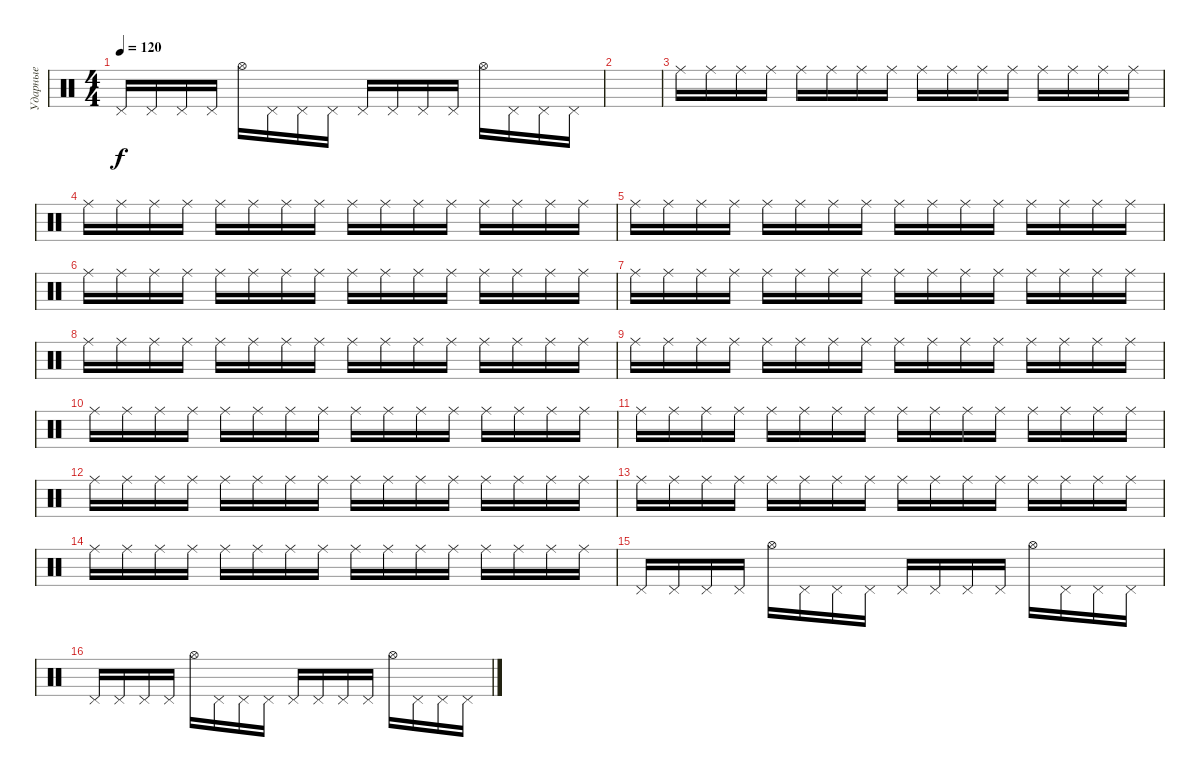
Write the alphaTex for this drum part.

\track ("Ударные" "Ударные") {instrument percussion}
\staff {score}
\articulation defaults
\ts (4 4)
\tempo 120
\clef neutral
\ks c "Pedal Hi-Hat (hit)".16{dy f} "Pedal Hi-Hat (hit)".16 "Pedal Hi-Hat (hit)".16 "Pedal Hi-Hat (hit)".16 "Hi-Hat (open)".16 "Pedal Hi-Hat (hit)".16 "Pedal Hi-Hat (hit)".16 "Pedal Hi-Hat (hit)".16 "Pedal Hi-Hat (hit)".16 "Pedal Hi-Hat (hit)".16 "Pedal Hi-Hat (hit)".16 "Pedal Hi-Hat (hit)".16 "Hi-Hat (open)".16 "Pedal Hi-Hat (hit)".16 "Pedal Hi-Hat (hit)".16 "Pedal Hi-Hat (hit)".16
|
|
"Ride (middle)".16 "Ride (middle)".16 "Ride (middle)".16 "Ride (middle)".16 "Ride (middle)".16 "Ride (middle)".16 "Ride (middle)".16 "Ride (middle)".16 "Ride (middle)".16 "Ride (middle)".16 "Ride (middle)".16 "Ride (middle)".16 "Ride (middle)".16 "Ride (middle)".16 "Ride (middle)".16 "Ride (middle)".16 |
"Ride (middle)".16 "Ride (middle)".16 "Ride (middle)".16 "Ride (middle)".16 "Ride (middle)".16 "Ride (middle)".16 "Ride (middle)".16 "Ride (middle)".16 "Ride (middle)".16 "Ride (middle)".16 "Ride (middle)".16 "Ride (middle)".16 "Ride (middle)".16 "Ride (middle)".16 "Ride (middle)".16 "Ride (middle)".16 |
"Ride (middle)".16 "Ride (middle)".16 "Ride (middle)".16 "Ride (middle)".16 "Ride (middle)".16 "Ride (middle)".16 "Ride (middle)".16 "Ride (middle)".16 "Ride (middle)".16 "Ride (middle)".16 "Ride (middle)".16 "Ride (middle)".16 "Ride (middle)".16 "Ride (middle)".16 "Ride (middle)".16 "Ride (middle)".16 |
"Ride (middle)".16 "Ride (middle)".16 "Ride (middle)".16 "Ride (middle)".16 "Ride (middle)".16 "Ride (middle)".16 "Ride (middle)".16 "Ride (middle)".16 "Ride (middle)".16 "Ride (middle)".16 "Ride (middle)".16 "Ride (middle)".16 "Ride (middle)".16 "Ride (middle)".16 "Ride (middle)".16 "Ride (middle)".16 |
"Ride (middle)".16 "Ride (middle)".16 "Ride (middle)".16 "Ride (middle)".16 "Ride (middle)".16 "Ride (middle)".16 "Ride (middle)".16 "Ride (middle)".16 "Ride (middle)".16 "Ride (middle)".16 "Ride (middle)".16 "Ride (middle)".16 "Ride (middle)".16 "Ride (middle)".16 "Ride (middle)".16 "Ride (middle)".16 |
"Ride (middle)".16 "Ride (middle)".16 "Ride (middle)".16 "Ride (middle)".16 "Ride (middle)".16 "Ride (middle)".16 "Ride (middle)".16 "Ride (middle)".16 "Ride (middle)".16 "Ride (middle)".16 "Ride (middle)".16 "Ride (middle)".16 "Ride (middle)".16 "Ride (middle)".16 "Ride (middle)".16 "Ride (middle)".16 |
"Ride (middle)".16 "Ride (middle)".16 "Ride (middle)".16 "Ride (middle)".16 "Ride (middle)".16 "Ride (middle)".16 "Ride (middle)".16 "Ride (middle)".16 "Ride (middle)".16 "Ride (middle)".16 "Ride (middle)".16 "Ride (middle)".16 "Ride (middle)".16 "Ride (middle)".16 "Ride (middle)".16 "Ride (middle)".16 |
"Ride (middle)".16 "Ride (middle)".16 "Ride (middle)".16 "Ride (middle)".16 "Ride (middle)".16 "Ride (middle)".16 "Ride (middle)".16 "Ride (middle)".16 "Ride (middle)".16 "Ride (middle)".16 "Ride (middle)".16 "Ride (middle)".16 "Ride (middle)".16 "Ride (middle)".16 "Ride (middle)".16 "Ride (middle)".16 |
"Ride (middle)".16 "Ride (middle)".16 "Ride (middle)".16 "Ride (middle)".16 "Ride (middle)".16 "Ride (middle)".16 "Ride (middle)".16 "Ride (middle)".16 "Ride (middle)".16 "Ride (middle)".16 "Ride (middle)".16 "Ride (middle)".16 "Ride (middle)".16 "Ride (middle)".16 "Ride (middle)".16 "Ride (middle)".16 |
"Ride (middle)".16 "Ride (middle)".16 "Ride (middle)".16 "Ride (middle)".16 "Ride (middle)".16 "Ride (middle)".16 "Ride (middle)".16 "Ride (middle)".16 "Ride (middle)".16 "Ride (middle)".16 "Ride (middle)".16 "Ride (middle)".16 "Ride (middle)".16 "Ride (middle)".16 "Ride (middle)".16 "Ride (middle)".16 |
"Ride (middle)".16 "Ride (middle)".16 "Ride (middle)".16 "Ride (middle)".16 "Ride (middle)".16 "Ride (middle)".16 "Ride (middle)".16 "Ride (middle)".16 "Ride (middle)".16 "Ride (middle)".16 "Ride (middle)".16 "Ride (middle)".16 "Ride (middle)".16 "Ride (middle)".16 "Ride (middle)".16 "Ride (middle)".16 |
"Ride (middle)".16 "Ride (middle)".16 "Ride (middle)".16 "Ride (middle)".16 "Ride (middle)".16 "Ride (middle)".16 "Ride (middle)".16 "Ride (middle)".16 "Ride (middle)".16 "Ride (middle)".16 "Ride (middle)".16 "Ride (middle)".16 "Ride (middle)".16 "Ride (middle)".16 "Ride (middle)".16 "Ride (middle)".16 |
"Pedal Hi-Hat (hit)".16 "Pedal Hi-Hat (hit)".16 "Pedal Hi-Hat (hit)".16 "Pedal Hi-Hat (hit)".16 "Hi-Hat (open)".16 "Pedal Hi-Hat (hit)".16 "Pedal Hi-Hat (hit)".16 "Pedal Hi-Hat (hit)".16 "Pedal Hi-Hat (hit)".16 "Pedal Hi-Hat (hit)".16 "Pedal Hi-Hat (hit)".16 "Pedal Hi-Hat (hit)".16 "Hi-Hat (open)".16 "Pedal Hi-Hat (hit)".16 "Pedal Hi-Hat (hit)".16 "Pedal Hi-Hat (hit)".16 |
"Pedal Hi-Hat (hit)".16 "Pedal Hi-Hat (hit)".16 "Pedal Hi-Hat (hit)".16 "Pedal Hi-Hat (hit)".16 "Hi-Hat (open)".16 "Pedal Hi-Hat (hit)".16 "Pedal Hi-Hat (hit)".16 "Pedal Hi-Hat (hit)".16 "Pedal Hi-Hat (hit)".16 "Pedal Hi-Hat (hit)".16 "Pedal Hi-Hat (hit)".16 "Pedal Hi-Hat (hit)".16 "Hi-Hat (open)".16 "Pedal Hi-Hat (hit)".16 "Pedal Hi-Hat (hit)".16 "Pedal Hi-Hat (hit)".16
